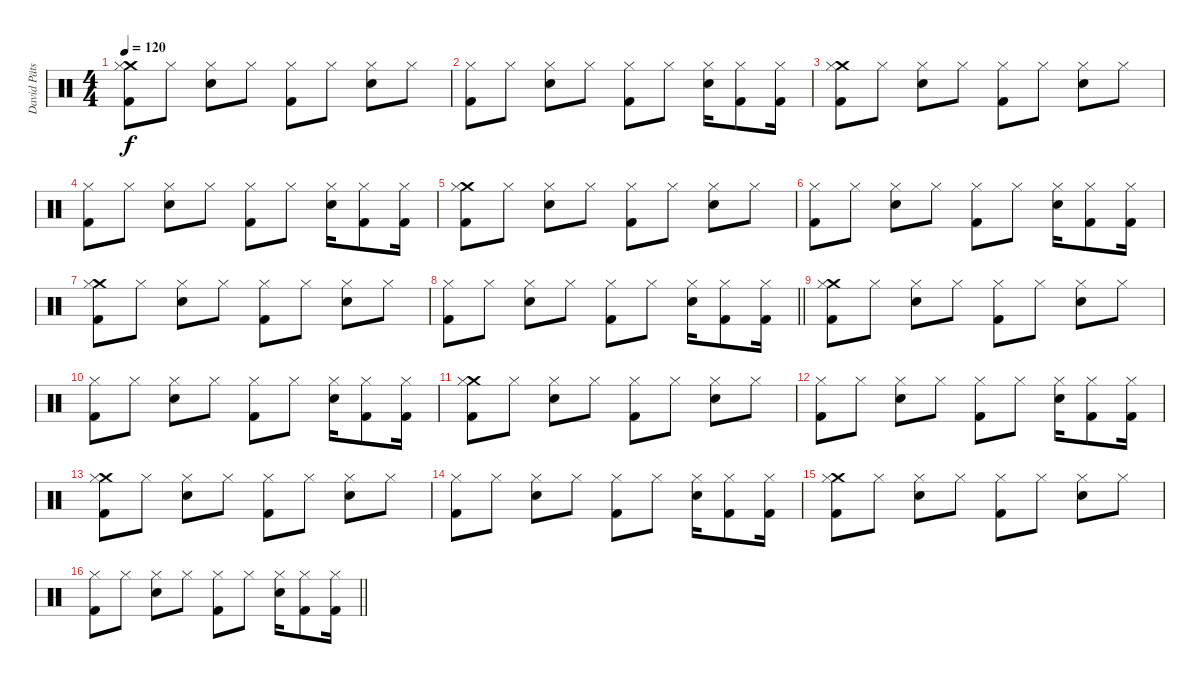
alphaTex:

\track ("David Pätsch" "David Päts") {instrument percussion}
\staff {score}
\articulation defaults
\ts (4 4)
\tempo 120
\clef neutral
\ks c
("Crash medium (hit)" "Hi-Hat (closed)" "Kick (hit) 2").8{dy f} "Hi-Hat (closed)".8 ("Hi-Hat (closed)" "Snare (hit) 2").8 "Hi-Hat (closed)".8 ("Hi-Hat (closed)" "Kick (hit) 2").8 "Hi-Hat (closed)".8 ("Hi-Hat (closed)" "Snare (hit) 2").8 "Hi-Hat (closed)".8 |
("Hi-Hat (closed)" "Kick (hit) 2").8 "Hi-Hat (closed)".8 ("Hi-Hat (closed)" "Snare (hit) 2").8 "Hi-Hat (closed)".8 ("Hi-Hat (closed)" "Kick (hit) 2").8 "Hi-Hat (closed)".8 ("Hi-Hat (closed)" "Snare (hit) 2").16 ("Hi-Hat (closed)" "Kick (hit) 2").8 ("Hi-Hat (closed)" "Kick (hit) 2").16 |
("Crash medium (hit)" "Hi-Hat (closed)" "Kick (hit) 2").8 "Hi-Hat (closed)".8 ("Hi-Hat (closed)" "Snare (hit) 2").8 "Hi-Hat (closed)".8 ("Hi-Hat (closed)" "Kick (hit) 2").8 "Hi-Hat (closed)".8 ("Hi-Hat (closed)" "Snare (hit) 2").8 "Hi-Hat (closed)".8 |
("Hi-Hat (closed)" "Kick (hit) 2").8 "Hi-Hat (closed)".8 ("Hi-Hat (closed)" "Snare (hit) 2").8 "Hi-Hat (closed)".8 ("Hi-Hat (closed)" "Kick (hit) 2").8 "Hi-Hat (closed)".8 ("Hi-Hat (closed)" "Snare (hit) 2").16 ("Hi-Hat (closed)" "Kick (hit) 2").8 ("Hi-Hat (closed)" "Kick (hit) 2").16 |
("Crash medium (hit)" "Hi-Hat (closed)" "Kick (hit) 2").8 "Hi-Hat (closed)".8 ("Hi-Hat (closed)" "Snare (hit) 2").8 "Hi-Hat (closed)".8 ("Hi-Hat (closed)" "Kick (hit) 2").8 "Hi-Hat (closed)".8 ("Hi-Hat (closed)" "Snare (hit) 2").8 "Hi-Hat (closed)".8 |
("Hi-Hat (closed)" "Kick (hit) 2").8 "Hi-Hat (closed)".8 ("Hi-Hat (closed)" "Snare (hit) 2").8 "Hi-Hat (closed)".8 ("Hi-Hat (closed)" "Kick (hit) 2").8 "Hi-Hat (closed)".8 ("Hi-Hat (closed)" "Snare (hit) 2").16 ("Hi-Hat (closed)" "Kick (hit) 2").8 ("Hi-Hat (closed)" "Kick (hit) 2").16 |
("Crash medium (hit)" "Hi-Hat (closed)" "Kick (hit) 2").8 "Hi-Hat (closed)".8 ("Hi-Hat (closed)" "Snare (hit) 2").8 "Hi-Hat (closed)".8 ("Hi-Hat (closed)" "Kick (hit) 2").8 "Hi-Hat (closed)".8 ("Hi-Hat (closed)" "Snare (hit) 2").8 "Hi-Hat (closed)".8 |
\barLineRight lightlight
("Hi-Hat (closed)" "Kick (hit) 2").8 "Hi-Hat (closed)".8 ("Hi-Hat (closed)" "Snare (hit) 2").8 "Hi-Hat (closed)".8 ("Hi-Hat (closed)" "Kick (hit) 2").8 "Hi-Hat (closed)".8 ("Hi-Hat (closed)" "Snare (hit) 2").16 ("Hi-Hat (closed)" "Kick (hit) 2").8 ("Hi-Hat (closed)" "Kick (hit) 2").16 |
("Crash medium (hit)" "Hi-Hat (closed)" "Kick (hit) 2").8 "Hi-Hat (closed)".8 ("Hi-Hat (closed)" "Snare (hit) 2").8 "Hi-Hat (closed)".8 ("Hi-Hat (closed)" "Kick (hit) 2").8 "Hi-Hat (closed)".8 ("Hi-Hat (closed)" "Snare (hit) 2").8 "Hi-Hat (closed)".8 |
("Hi-Hat (closed)" "Kick (hit) 2").8 "Hi-Hat (closed)".8 ("Hi-Hat (closed)" "Snare (hit) 2").8 "Hi-Hat (closed)".8 ("Hi-Hat (closed)" "Kick (hit) 2").8 "Hi-Hat (closed)".8 ("Hi-Hat (closed)" "Snare (hit) 2").16 ("Hi-Hat (closed)" "Kick (hit) 2").8 ("Hi-Hat (closed)" "Kick (hit) 2").16 |
("Crash medium (hit)" "Hi-Hat (closed)" "Kick (hit) 2").8 "Hi-Hat (closed)".8 ("Hi-Hat (closed)" "Snare (hit) 2").8 "Hi-Hat (closed)".8 ("Hi-Hat (closed)" "Kick (hit) 2").8 "Hi-Hat (closed)".8 ("Hi-Hat (closed)" "Snare (hit) 2").8 "Hi-Hat (closed)".8 |
("Hi-Hat (closed)" "Kick (hit) 2").8 "Hi-Hat (closed)".8 ("Hi-Hat (closed)" "Snare (hit) 2").8 "Hi-Hat (closed)".8 ("Hi-Hat (closed)" "Kick (hit) 2").8 "Hi-Hat (closed)".8 ("Hi-Hat (closed)" "Snare (hit) 2").16 ("Hi-Hat (closed)" "Kick (hit) 2").8 ("Hi-Hat (closed)" "Kick (hit) 2").16 |
("Crash medium (hit)" "Hi-Hat (closed)" "Kick (hit) 2").8 "Hi-Hat (closed)".8 ("Hi-Hat (closed)" "Snare (hit) 2").8 "Hi-Hat (closed)".8 ("Hi-Hat (closed)" "Kick (hit) 2").8 "Hi-Hat (closed)".8 ("Hi-Hat (closed)" "Snare (hit) 2").8 "Hi-Hat (closed)".8 |
("Hi-Hat (closed)" "Kick (hit) 2").8 "Hi-Hat (closed)".8 ("Hi-Hat (closed)" "Snare (hit) 2").8 "Hi-Hat (closed)".8 ("Hi-Hat (closed)" "Kick (hit) 2").8 "Hi-Hat (closed)".8 ("Hi-Hat (closed)" "Snare (hit) 2").16 ("Hi-Hat (closed)" "Kick (hit) 2").8 ("Hi-Hat (closed)" "Kick (hit) 2").16 |
("Crash medium (hit)" "Hi-Hat (closed)" "Kick (hit) 2").8 "Hi-Hat (closed)".8 ("Hi-Hat (closed)" "Snare (hit) 2").8 "Hi-Hat (closed)".8 ("Hi-Hat (closed)" "Kick (hit) 2").8 "Hi-Hat (closed)".8 ("Hi-Hat (closed)" "Snare (hit) 2").8 "Hi-Hat (closed)".8 |
\barLineRight lightlight
("Hi-Hat (closed)" "Kick (hit) 2").8 "Hi-Hat (closed)".8 ("Hi-Hat (closed)" "Snare (hit) 2").8 "Hi-Hat (closed)".8 ("Hi-Hat (closed)" "Kick (hit) 2").8 "Hi-Hat (closed)".8 ("Hi-Hat (closed)" "Snare (hit) 2").16 ("Hi-Hat (closed)" "Kick (hit) 2").8 ("Hi-Hat (closed)" "Kick (hit) 2").16
